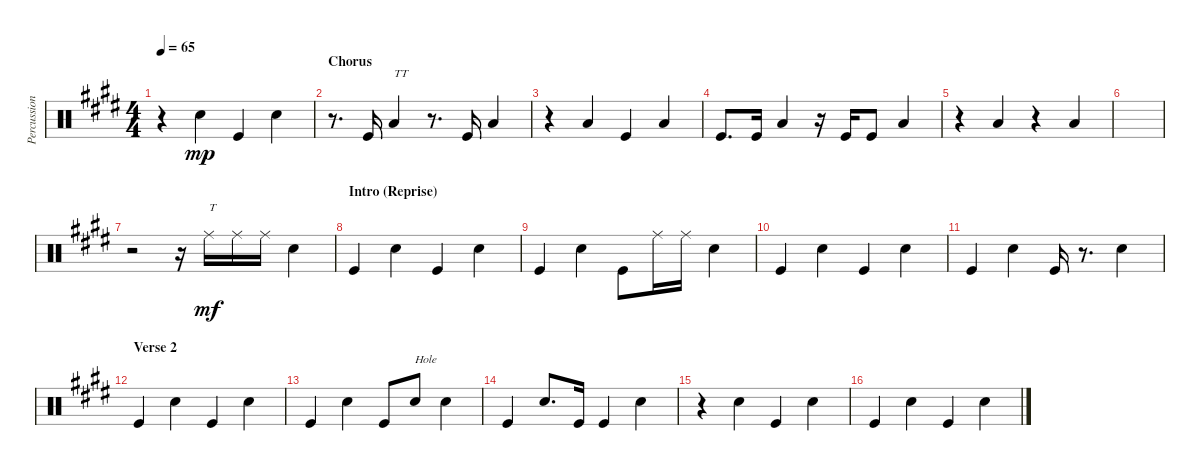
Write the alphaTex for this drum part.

\track ("Percussion" "Percussion") {instrument percussion}
\staff {score}
\articulation defaults
\ts (4 4)
\tempo 65
\clef neutral
\ks e
r.4{dy mp} "Snare (hit) 2".4 "Kick (hit)".4 "Snare (hit) 2".4 |
\section ("" "Chorus")
r.8{d} "Kick (hit)".16 "Low Tom (hit)".4{txt "TT"} r.8{d} "Kick (hit)".16 "Low Tom (hit)".4 |
r.4 "Low Tom (hit)".4 "Kick (hit)".4 "Low Tom (hit)".4 |
"Kick (hit)".8{d} "Kick (hit)".16 "Low Tom (hit)".4 r.16 "Kick (hit)".16 "Kick (hit)".8 "Low Tom (hit)".4 |
r.4 "Low Tom (hit)".4 r.4 "Low Tom (hit)".4 |
|
r.2 r.16 "Ride (middle)".16{txt "T" dy mf} "Ride (middle)".16 "Ride (middle)".16 "Snare (hit) 2".4 |
\section ("" "Intro (Reprise)")
"Kick (hit)".4 "Snare (hit) 2".4 "Kick (hit)".4 "Snare (hit) 2".4 |
"Kick (hit)".4 "Snare (hit) 2".4 "Kick (hit)".8 "Ride (middle)".16 "Ride (middle)".16 "Snare (hit) 2".4 |
"Kick (hit)".4 "Snare (hit) 2".4 "Kick (hit)".4 "Snare (hit) 2".4 |
"Kick (hit)".4 "Snare (hit) 2".4 "Kick (hit)".16 r.8{d} "Snare (hit) 2".4 |
\section ("" "Verse 2")
"Kick (hit)".4 "Snare (hit) 2".4 "Kick (hit)".4 "Snare (hit) 2".4 |
"Kick (hit)".4 "Snare (hit) 2".4 "Kick (hit)".8 "Snare (hit) 2".8{txt "Hole"} "Snare (hit) 2".4 |
"Kick (hit)".4 "Snare (hit) 2".8{d} "Kick (hit)".16 "Kick (hit)".4 "Snare (hit) 2".4 |
r.4 "Snare (hit) 2".4 "Kick (hit)".4 "Snare (hit) 2".4 |
"Kick (hit)".4 "Snare (hit) 2".4 "Kick (hit)".4 "Snare (hit) 2".4
